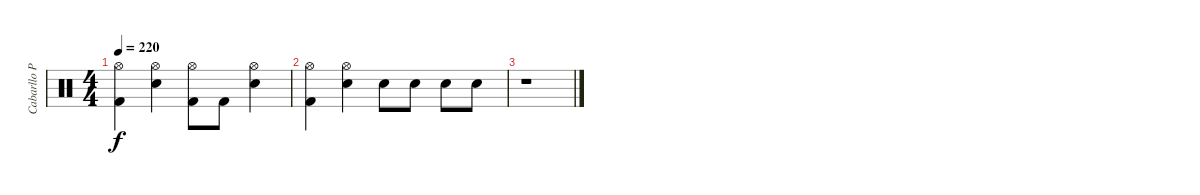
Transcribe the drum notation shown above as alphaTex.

\track ("Cabarllo Pepe" "Cabarllo P") {instrument percussion}
\staff {score}
\articulation defaults
\ts (4 4)
\tempo 220
\clef neutral
\ks c
("Hi-Hat (open)" "Kick (hit) 2").4{dy f} ("Hi-Hat (open)" "Electric Snare (hit)").4 ("Hi-Hat (open)" "Kick (hit) 2").8 "Kick (hit) 2".8 ("Hi-Hat (open)" "Electric Snare (hit)").4 |
("Hi-Hat (open)" "Kick (hit) 2").4 ("Hi-Hat (open)" "Electric Snare (hit)").4 "Electric Snare (hit)".8 "Electric Snare (hit)".8 "Electric Snare (hit)".8 "Electric Snare (hit)".8 |
r.1
